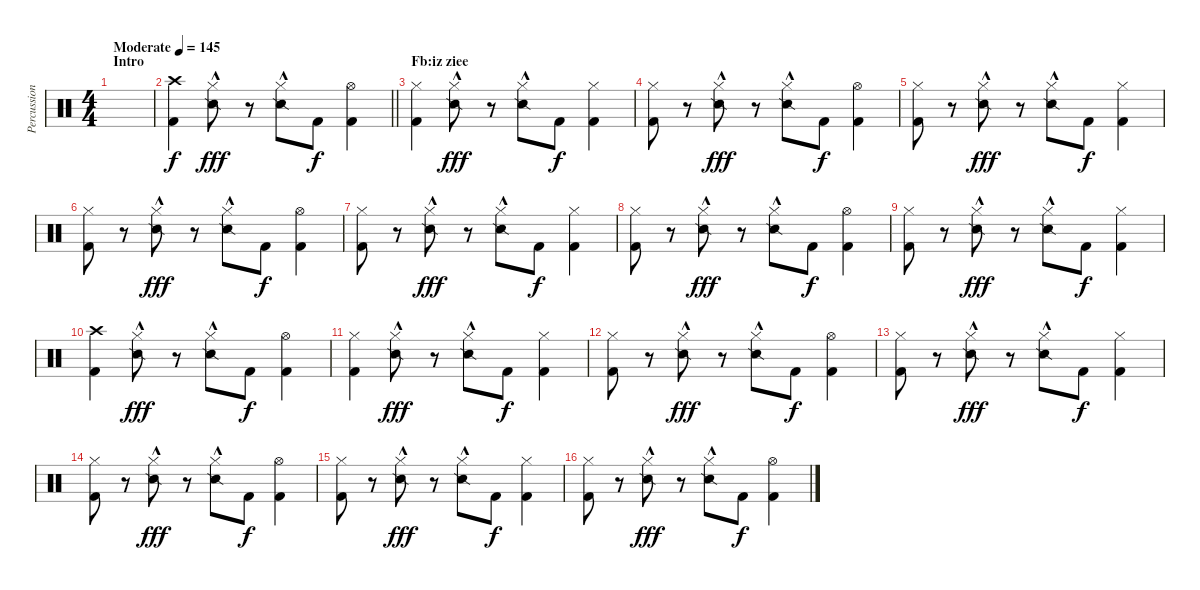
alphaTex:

\track ("Percussion 1" "Percussion") {instrument percussion}
\staff {score}
\articulation defaults
\ts (4 4)
\section ("" "Intro")
\tempo (145 "Moderate")
\clef neutral
\ks c
|
\barLineRight lightlight
("Crash high (hit)" "Kick (hit) 2").4 ("Hi-Hat (closed)" "Snare (side stick) 2"{hac}).8{dy fff} r.8 ("Hi-Hat (closed)" "Snare (side stick) 2"{hac}).8 "Kick (hit) 2".8{dy f} ("Hi-Hat (open)" "Kick (hit) 2").4 |
\section ("" "Fb:iz ziee")
("Hi-Hat (closed)" "Kick (hit) 2").4 ("Hi-Hat (closed)" "Snare (side stick) 2"{hac}).8{dy fff} r.8 ("Hi-Hat (closed)" "Snare (side stick) 2"{hac}).8 "Kick (hit) 2".8{dy f} ("Hi-Hat (closed)" "Kick (hit) 2").4 |
("Hi-Hat (closed)" "Kick (hit) 2").8 r.8 ("Hi-Hat (closed)" "Snare (side stick) 2"{hac}).8{dy fff} r.8 ("Hi-Hat (closed)" "Snare (side stick) 2"{hac}).8 "Kick (hit) 2".8{dy f} ("Hi-Hat (open)" "Kick (hit) 2").4 |
("Hi-Hat (closed)" "Kick (hit) 2").8 r.8 ("Hi-Hat (closed)" "Snare (side stick) 2"{hac}).8{dy fff} r.8 ("Hi-Hat (closed)" "Snare (side stick) 2"{hac}).8 "Kick (hit) 2".8{dy f} ("Hi-Hat (closed)" "Kick (hit) 2").4 |
("Hi-Hat (closed)" "Kick (hit) 2").8 r.8 ("Hi-Hat (closed)" "Snare (side stick) 2"{hac}).8{dy fff} r.8 ("Hi-Hat (closed)" "Snare (side stick) 2"{hac}).8 "Kick (hit) 2".8{dy f} ("Hi-Hat (open)" "Kick (hit) 2").4 |
("Hi-Hat (closed)" "Kick (hit) 2").8 r.8 ("Hi-Hat (closed)" "Snare (side stick) 2"{hac}).8{dy fff} r.8 ("Hi-Hat (closed)" "Snare (side stick) 2"{hac}).8 "Kick (hit) 2".8{dy f} ("Hi-Hat (closed)" "Kick (hit) 2").4 |
("Hi-Hat (closed)" "Kick (hit) 2").8 r.8 ("Hi-Hat (closed)" "Snare (side stick) 2"{hac}).8{dy fff} r.8 ("Hi-Hat (closed)" "Snare (side stick) 2"{hac}).8 "Kick (hit) 2".8{dy f} ("Hi-Hat (open)" "Kick (hit) 2").4 |
("Hi-Hat (closed)" "Kick (hit) 2").8 r.8 ("Hi-Hat (closed)" "Snare (side stick) 2"{hac}).8{dy fff} r.8 ("Hi-Hat (closed)" "Snare (side stick) 2"{hac}).8 "Kick (hit) 2".8{dy f} ("Hi-Hat (closed)" "Kick (hit) 2").4 |
("Crash high (hit)" "Kick (hit) 2").4 ("Hi-Hat (closed)" "Snare (side stick) 2"{hac}).8{dy fff} r.8 ("Hi-Hat (closed)" "Snare (side stick) 2"{hac}).8 "Kick (hit) 2".8{dy f} ("Hi-Hat (open)" "Kick (hit) 2").4 |
("Hi-Hat (closed)" "Kick (hit) 2").4 ("Hi-Hat (closed)" "Snare (side stick) 2"{hac}).8{dy fff} r.8 ("Hi-Hat (closed)" "Snare (side stick) 2"{hac}).8 "Kick (hit) 2".8{dy f} ("Hi-Hat (closed)" "Kick (hit) 2").4 |
("Hi-Hat (closed)" "Kick (hit) 2").8 r.8 ("Hi-Hat (closed)" "Snare (side stick) 2"{hac}).8{dy fff} r.8 ("Hi-Hat (closed)" "Snare (side stick) 2"{hac}).8 "Kick (hit) 2".8{dy f} ("Hi-Hat (open)" "Kick (hit) 2").4 |
("Hi-Hat (closed)" "Kick (hit) 2").8 r.8 ("Hi-Hat (closed)" "Snare (side stick) 2"{hac}).8{dy fff} r.8 ("Hi-Hat (closed)" "Snare (side stick) 2"{hac}).8 "Kick (hit) 2".8{dy f} ("Hi-Hat (closed)" "Kick (hit) 2").4 |
("Hi-Hat (closed)" "Kick (hit) 2").8 r.8 ("Hi-Hat (closed)" "Snare (side stick) 2"{hac}).8{dy fff} r.8 ("Hi-Hat (closed)" "Snare (side stick) 2"{hac}).8 "Kick (hit) 2".8{dy f} ("Hi-Hat (open)" "Kick (hit) 2").4 |
("Hi-Hat (closed)" "Kick (hit) 2").8 r.8 ("Hi-Hat (closed)" "Snare (side stick) 2"{hac}).8{dy fff} r.8 ("Hi-Hat (closed)" "Snare (side stick) 2"{hac}).8 "Kick (hit) 2".8{dy f} ("Hi-Hat (closed)" "Kick (hit) 2").4 |
("Hi-Hat (closed)" "Kick (hit) 2").8 r.8 ("Hi-Hat (closed)" "Snare (side stick) 2"{hac}).8{dy fff} r.8 ("Hi-Hat (closed)" "Snare (side stick) 2"{hac}).8 "Kick (hit) 2".8{dy f} ("Hi-Hat (open)" "Kick (hit) 2").4
